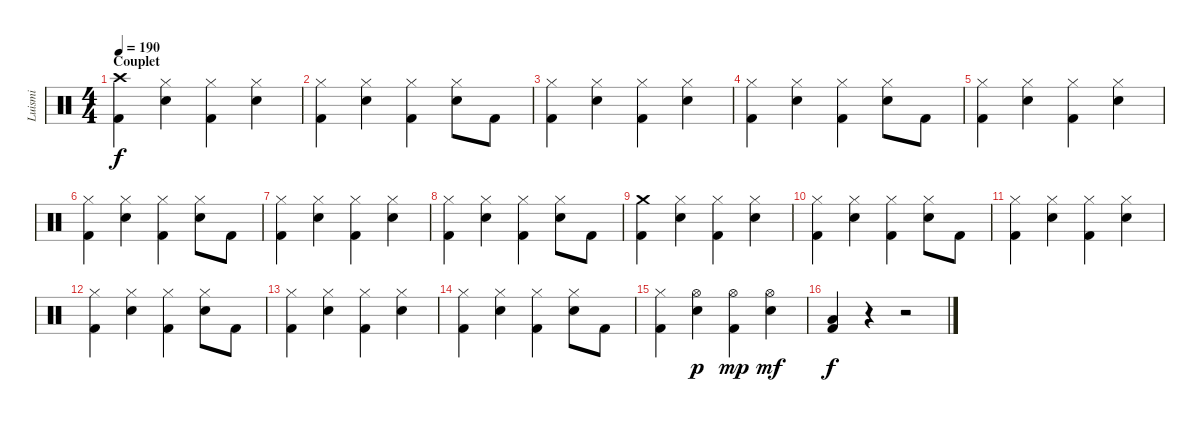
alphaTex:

\track ("Luismi" "Luismi") {instrument percussion}
\staff {score}
\articulation defaults
\ts (4 4)
\section ("" "Couplet")
\tempo 190
\clef neutral
\ks c
("Crash high (hit)" "Kick (hit) 2").4{dy f} ("Hi-Hat (closed)" "Electric Snare (hit)").4 ("Hi-Hat (closed)" "Kick (hit) 2").4 ("Hi-Hat (closed)" "Electric Snare (hit)").4 |
("Hi-Hat (closed)" "Kick (hit) 2").4 ("Hi-Hat (closed)" "Electric Snare (hit)").4 ("Hi-Hat (closed)" "Kick (hit) 2").4 ("Hi-Hat (closed)" "Electric Snare (hit)").8 "Kick (hit) 2".8 |
("Hi-Hat (closed)" "Kick (hit) 2").4 ("Hi-Hat (closed)" "Electric Snare (hit)").4 ("Hi-Hat (closed)" "Kick (hit) 2").4 ("Hi-Hat (closed)" "Electric Snare (hit)").4 |
("Hi-Hat (closed)" "Kick (hit) 2").4 ("Hi-Hat (closed)" "Electric Snare (hit)").4 ("Hi-Hat (closed)" "Kick (hit) 2").4 ("Hi-Hat (closed)" "Electric Snare (hit)").8 "Kick (hit) 2".8 |
("Hi-Hat (closed)" "Kick (hit) 2").4 ("Hi-Hat (closed)" "Electric Snare (hit)").4 ("Hi-Hat (closed)" "Kick (hit) 2").4 ("Hi-Hat (closed)" "Electric Snare (hit)").4 |
("Hi-Hat (closed)" "Kick (hit) 2").4 ("Hi-Hat (closed)" "Electric Snare (hit)").4 ("Hi-Hat (closed)" "Kick (hit) 2").4 ("Hi-Hat (closed)" "Electric Snare (hit)").8 "Kick (hit) 2".8 |
("Hi-Hat (closed)" "Kick (hit) 2").4 ("Hi-Hat (closed)" "Electric Snare (hit)").4 ("Hi-Hat (closed)" "Kick (hit) 2").4 ("Hi-Hat (closed)" "Electric Snare (hit)").4 |
("Hi-Hat (closed)" "Kick (hit) 2").4 ("Hi-Hat (closed)" "Electric Snare (hit)").4 ("Hi-Hat (closed)" "Kick (hit) 2").4 ("Hi-Hat (closed)" "Electric Snare (hit)").8 "Kick (hit) 2".8 |
("Crash medium (hit)" "Kick (hit) 2").4 ("Hi-Hat (closed)" "Electric Snare (hit)").4 ("Hi-Hat (closed)" "Kick (hit) 2").4 ("Hi-Hat (closed)" "Electric Snare (hit)").4 |
("Hi-Hat (closed)" "Kick (hit) 2").4 ("Hi-Hat (closed)" "Electric Snare (hit)").4 ("Hi-Hat (closed)" "Kick (hit) 2").4 ("Hi-Hat (closed)" "Electric Snare (hit)").8 "Kick (hit) 2".8 |
("Hi-Hat (closed)" "Kick (hit) 2").4 ("Hi-Hat (closed)" "Electric Snare (hit)").4 ("Hi-Hat (closed)" "Kick (hit) 2").4 ("Hi-Hat (closed)" "Electric Snare (hit)").4 |
("Hi-Hat (closed)" "Kick (hit) 2").4 ("Hi-Hat (closed)" "Electric Snare (hit)").4 ("Hi-Hat (closed)" "Kick (hit) 2").4 ("Hi-Hat (closed)" "Electric Snare (hit)").8 "Kick (hit) 2".8 |
("Hi-Hat (closed)" "Kick (hit) 2").4 ("Hi-Hat (closed)" "Electric Snare (hit)").4 ("Hi-Hat (closed)" "Kick (hit) 2").4 ("Hi-Hat (closed)" "Electric Snare (hit)").4 |
("Hi-Hat (closed)" "Kick (hit) 2").4 ("Hi-Hat (closed)" "Electric Snare (hit)").4 ("Hi-Hat (closed)" "Kick (hit) 2").4 ("Hi-Hat (closed)" "Electric Snare (hit)").8 "Kick (hit) 2".8 |
("Hi-Hat (closed)" "Kick (hit) 2").4 ("Hi-Hat (open)" "Electric Snare (hit)").4{dy p} ("Hi-Hat (open)" "Kick (hit) 2").4{dy mp} ("Hi-Hat (open)" "Electric Snare (hit)").4{dy mf} |
("Kick (hit) 2" "Low Floor Tom (hit)").4{dy f} r.4 r.2
